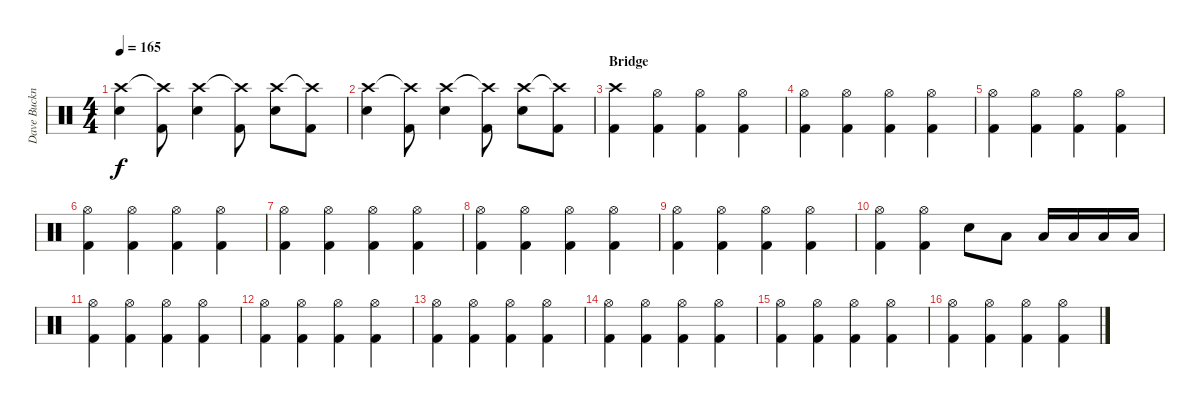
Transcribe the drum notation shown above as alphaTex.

\track ("Dave Buckner " "Dave Buckn") {instrument percussion}
\staff {score}
\articulation defaults
\ts (4 4)
\tempo 165
\clef neutral
\ks c
("Crash high (hit)" "Snare (hit) 2").4{dy f} ("Crash high (hit)"{t} "Kick (hit) 2").8 ("Crash high (hit)" "Snare (hit) 2").4 ("Crash high (hit)"{t} "Kick (hit) 2").8 ("Crash high (hit)" "Snare (hit) 2").8 ("Crash high (hit)"{t} "Kick (hit) 2").8 |
("Crash high (hit)" "Snare (hit) 2").4 ("Crash high (hit)"{t} "Kick (hit) 2").8 ("Crash high (hit)" "Snare (hit) 2").4 ("Crash high (hit)"{t} "Kick (hit) 2").8 ("Crash high (hit)" "Snare (hit) 2").8 ("Crash high (hit)"{t} "Kick (hit) 2").8 |
\section ("" "Bridge")
("Crash high (hit)" "Kick (hit) 2").4 ("Hi-Hat (open)" "Kick (hit) 2").4 ("Hi-Hat (open)" "Kick (hit) 2").4 ("Hi-Hat (open)" "Kick (hit) 2").4 |
("Hi-Hat (open)" "Kick (hit) 2").4 ("Hi-Hat (open)" "Kick (hit) 2").4 ("Hi-Hat (open)" "Kick (hit) 2").4 ("Hi-Hat (open)" "Kick (hit) 2").4 |
("Hi-Hat (open)" "Kick (hit) 2").4 ("Hi-Hat (open)" "Kick (hit) 2").4 ("Hi-Hat (open)" "Kick (hit) 2").4 ("Hi-Hat (open)" "Kick (hit) 2").4 |
("Hi-Hat (open)" "Kick (hit) 2").4 ("Hi-Hat (open)" "Kick (hit) 2").4 ("Hi-Hat (open)" "Kick (hit) 2").4 ("Hi-Hat (open)" "Kick (hit) 2").4 |
("Hi-Hat (open)" "Kick (hit) 2").4 ("Hi-Hat (open)" "Kick (hit) 2").4 ("Hi-Hat (open)" "Kick (hit) 2").4 ("Hi-Hat (open)" "Kick (hit) 2").4 |
("Hi-Hat (open)" "Kick (hit) 2").4 ("Hi-Hat (open)" "Kick (hit) 2").4 ("Hi-Hat (open)" "Kick (hit) 2").4 ("Hi-Hat (open)" "Kick (hit) 2").4 |
("Hi-Hat (open)" "Kick (hit) 2").4 ("Hi-Hat (open)" "Kick (hit) 2").4 ("Hi-Hat (open)" "Kick (hit) 2").4 ("Hi-Hat (open)" "Kick (hit) 2").4 |
("Hi-Hat (open)" "Kick (hit) 2").4 ("Hi-Hat (open)" "Kick (hit) 2").4 "Snare (hit) 2".8 "Low Tom (hit)".8 "Low Tom (hit)".16 "Low Tom (hit)".16 "Low Tom (hit)".16 "Low Tom (hit)".16 |
("Hi-Hat (open)" "Kick (hit) 2").4 ("Hi-Hat (open)" "Kick (hit) 2").4 ("Hi-Hat (open)" "Kick (hit) 2").4 ("Hi-Hat (open)" "Kick (hit) 2").4 |
("Hi-Hat (open)" "Kick (hit) 2").4 ("Hi-Hat (open)" "Kick (hit) 2").4 ("Hi-Hat (open)" "Kick (hit) 2").4 ("Hi-Hat (open)" "Kick (hit) 2").4 |
("Hi-Hat (open)" "Kick (hit) 2").4 ("Hi-Hat (open)" "Kick (hit) 2").4 ("Hi-Hat (open)" "Kick (hit) 2").4 ("Hi-Hat (open)" "Kick (hit) 2").4 |
("Hi-Hat (open)" "Kick (hit) 2").4 ("Hi-Hat (open)" "Kick (hit) 2").4 ("Hi-Hat (open)" "Kick (hit) 2").4 ("Hi-Hat (open)" "Kick (hit) 2").4 |
("Hi-Hat (open)" "Kick (hit) 2").4 ("Hi-Hat (open)" "Kick (hit) 2").4 ("Hi-Hat (open)" "Kick (hit) 2").4 ("Hi-Hat (open)" "Kick (hit) 2").4 |
("Hi-Hat (open)" "Kick (hit) 2").4 ("Hi-Hat (open)" "Kick (hit) 2").4 ("Hi-Hat (open)" "Kick (hit) 2").4 ("Hi-Hat (open)" "Kick (hit) 2").4
